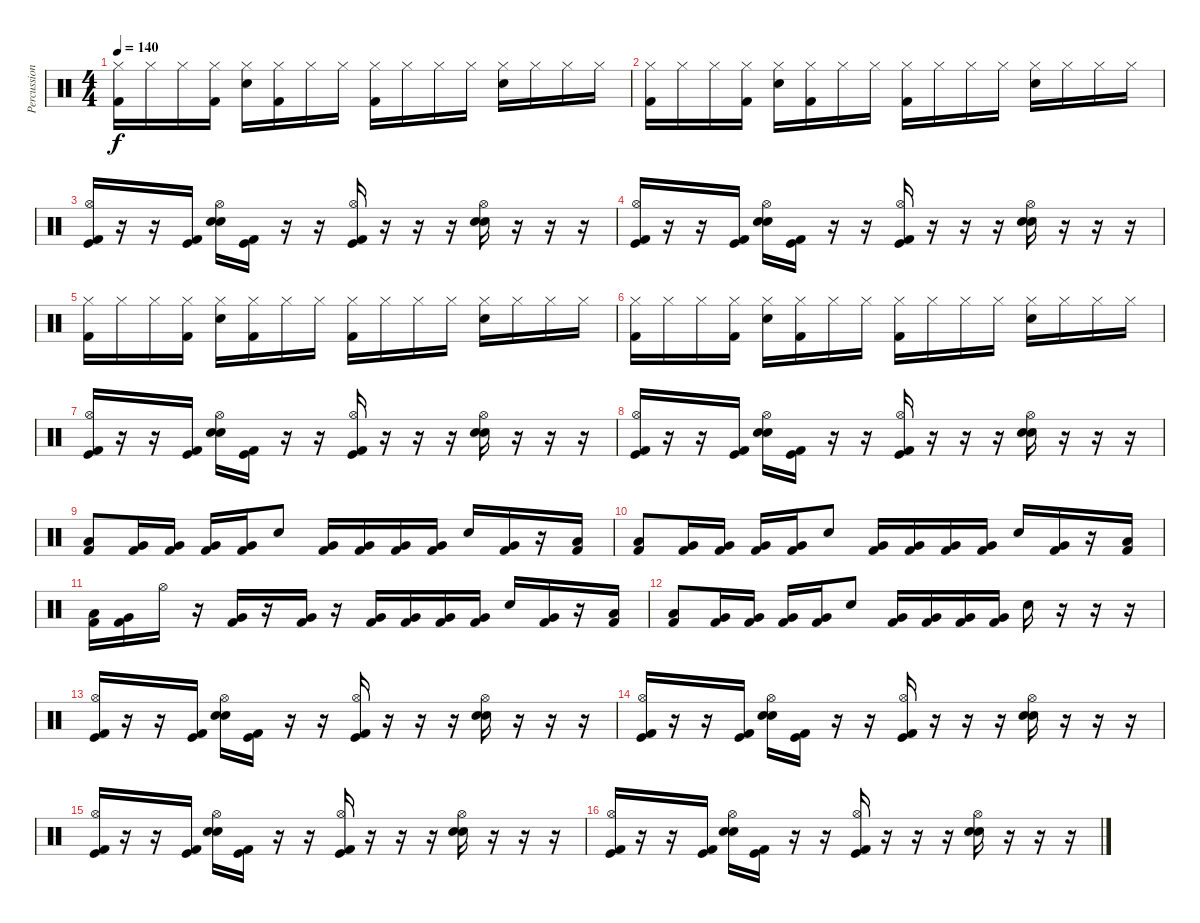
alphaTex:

\track ("Percussion" "Percussion") {instrument percussion}
\staff {score}
\articulation defaults
\ts (4 4)
\tempo 140
\clef neutral
\ks c
("Hi-Hat (closed)" "Kick (hit) 2").16{dy f} "Hi-Hat (closed)".16 "Hi-Hat (closed)".16 ("Hi-Hat (closed)" "Kick (hit) 2").16 ("Hi-Hat (closed)" "Electric Snare (hit)").16 ("Hi-Hat (closed)" "Kick (hit) 2").16 "Hi-Hat (closed)".16 "Hi-Hat (closed)".16 ("Hi-Hat (closed)" "Kick (hit) 2").16 "Hi-Hat (closed)".16 "Hi-Hat (closed)".16 "Hi-Hat (closed)".16 ("Hi-Hat (closed)" "Electric Snare (hit)").16 "Hi-Hat (closed)".16 "Hi-Hat (closed)".16 "Hi-Hat (closed)".16 |
("Hi-Hat (closed)" "Kick (hit) 2").16 "Hi-Hat (closed)".16 "Hi-Hat (closed)".16 ("Hi-Hat (closed)" "Kick (hit) 2").16 ("Hi-Hat (closed)" "Electric Snare (hit)").16 ("Hi-Hat (closed)" "Kick (hit) 2").16 "Hi-Hat (closed)".16 "Hi-Hat (closed)".16 ("Hi-Hat (closed)" "Kick (hit) 2").16 "Hi-Hat (closed)".16 "Hi-Hat (closed)".16 "Hi-Hat (closed)".16 ("Hi-Hat (closed)" "Electric Snare (hit)").16 "Hi-Hat (closed)".16 "Hi-Hat (closed)".16 "Hi-Hat (closed)".16 |
("Hi-Hat (open)" "Kick (hit)" "Kick (hit) 2").16 r.16 r.16 ("Kick (hit)" "Kick (hit) 2").16 ("Hi-Hat (open)" "Electric Snare (hit)" "Electric Snare (hit)").16 ("Kick (hit)" "Kick (hit) 2").16 r.16 r.16 ("Hi-Hat (open)" "Kick (hit)" "Kick (hit) 2").16 r.16 r.16 r.16 ("Hi-Hat (open)" "Electric Snare (hit)" "Electric Snare (hit)").16 r.16 r.16 r.16 |
("Hi-Hat (open)" "Kick (hit)" "Kick (hit) 2").16 r.16 r.16 ("Kick (hit)" "Kick (hit) 2").16 ("Hi-Hat (open)" "Electric Snare (hit)" "Electric Snare (hit)").16 ("Kick (hit)" "Kick (hit) 2").16 r.16 r.16 ("Hi-Hat (open)" "Kick (hit)" "Kick (hit) 2").16 r.16 r.16 r.16 ("Hi-Hat (open)" "Electric Snare (hit)" "Electric Snare (hit)").16 r.16 r.16 r.16 |
("Hi-Hat (closed)" "Kick (hit) 2").16 "Hi-Hat (closed)".16 "Hi-Hat (closed)".16 ("Hi-Hat (closed)" "Kick (hit) 2").16 ("Hi-Hat (closed)" "Electric Snare (hit)").16 ("Hi-Hat (closed)" "Kick (hit) 2").16 "Hi-Hat (closed)".16 "Hi-Hat (closed)".16 ("Hi-Hat (closed)" "Kick (hit) 2").16 "Hi-Hat (closed)".16 "Hi-Hat (closed)".16 "Hi-Hat (closed)".16 ("Hi-Hat (closed)" "Electric Snare (hit)").16 "Hi-Hat (closed)".16 "Hi-Hat (closed)".16 "Hi-Hat (closed)".16 |
("Hi-Hat (closed)" "Kick (hit) 2").16 "Hi-Hat (closed)".16 "Hi-Hat (closed)".16 ("Hi-Hat (closed)" "Kick (hit) 2").16 ("Hi-Hat (closed)" "Electric Snare (hit)").16 ("Hi-Hat (closed)" "Kick (hit) 2").16 "Hi-Hat (closed)".16 "Hi-Hat (closed)".16 ("Hi-Hat (closed)" "Kick (hit) 2").16 "Hi-Hat (closed)".16 "Hi-Hat (closed)".16 "Hi-Hat (closed)".16 ("Hi-Hat (closed)" "Electric Snare (hit)").16 "Hi-Hat (closed)".16 "Hi-Hat (closed)".16 "Hi-Hat (closed)".16 |
("Hi-Hat (open)" "Kick (hit)" "Kick (hit) 2").16 r.16 r.16 ("Kick (hit)" "Kick (hit) 2").16 ("Hi-Hat (open)" "Electric Snare (hit)" "Electric Snare (hit)").16 ("Kick (hit)" "Kick (hit) 2").16 r.16 r.16 ("Hi-Hat (open)" "Kick (hit)" "Kick (hit) 2").16 r.16 r.16 r.16 ("Hi-Hat (open)" "Electric Snare (hit)" "Electric Snare (hit)").16 r.16 r.16 r.16 |
("Hi-Hat (open)" "Kick (hit)" "Kick (hit) 2").16 r.16 r.16 ("Kick (hit)" "Kick (hit) 2").16 ("Hi-Hat (open)" "Electric Snare (hit)" "Electric Snare (hit)").16 ("Kick (hit)" "Kick (hit) 2").16 r.16 r.16 ("Hi-Hat (open)" "Kick (hit)" "Kick (hit) 2").16 r.16 r.16 r.16 ("Hi-Hat (open)" "Electric Snare (hit)" "Electric Snare (hit)").16 r.16 r.16 r.16 |
("Low Tom (hit)" "Kick (hit) 2").8 ("Very Low Tom (hit)" "Kick (hit) 2").16 ("Very Low Tom (hit)" "Kick (hit) 2").16 ("Very Low Tom (hit)" "Kick (hit) 2").16 ("Very Low Tom (hit)" "Kick (hit) 2").16 "Electric Snare (hit)".8 ("Very Low Tom (hit)" "Kick (hit) 2").16 ("Very Low Tom (hit)" "Kick (hit) 2").16 ("Very Low Tom (hit)" "Kick (hit) 2").16 ("Very Low Tom (hit)" "Kick (hit) 2").16 "Electric Snare (hit)".16 ("Very Low Tom (hit)" "Kick (hit) 2").16 r.16 ("Low Tom (hit)" "Kick (hit) 2").16 |
("Low Tom (hit)" "Kick (hit) 2").8 ("Very Low Tom (hit)" "Kick (hit) 2").16 ("Very Low Tom (hit)" "Kick (hit) 2").16 ("Very Low Tom (hit)" "Kick (hit) 2").16 ("Very Low Tom (hit)" "Kick (hit) 2").16 "Electric Snare (hit)".8 ("Very Low Tom (hit)" "Kick (hit) 2").16 ("Very Low Tom (hit)" "Kick (hit) 2").16 ("Very Low Tom (hit)" "Kick (hit) 2").16 ("Very Low Tom (hit)" "Kick (hit) 2").16 "Electric Snare (hit)".16 ("Very Low Tom (hit)" "Kick (hit) 2").16 r.16 ("Low Tom (hit)" "Kick (hit) 2").16 |
("Low Tom (hit)" "Kick (hit) 2").16 ("Very Low Tom (hit)" "Kick (hit) 2").16 "Hi-Hat (open)".16 r.16 ("Very Low Tom (hit)" "Kick (hit) 2").16 r.16 ("Very Low Tom (hit)" "Kick (hit) 2").16 r.16 ("Very Low Tom (hit)" "Kick (hit) 2").16 ("Very Low Tom (hit)" "Kick (hit) 2").16 ("Very Low Tom (hit)" "Kick (hit) 2").16 ("Very Low Tom (hit)" "Kick (hit) 2").16 "Electric Snare (hit)".16 ("Very Low Tom (hit)" "Kick (hit) 2").16 r.16 ("Low Tom (hit)" "Kick (hit) 2").16 |
("Low Tom (hit)" "Kick (hit) 2").8 ("Very Low Tom (hit)" "Kick (hit) 2").16 ("Very Low Tom (hit)" "Kick (hit) 2").16 ("Very Low Tom (hit)" "Kick (hit) 2").16 ("Very Low Tom (hit)" "Kick (hit) 2").16 "Electric Snare (hit)".8 ("Very Low Tom (hit)" "Kick (hit) 2").16 ("Very Low Tom (hit)" "Kick (hit) 2").16 ("Very Low Tom (hit)" "Kick (hit) 2").16 ("Very Low Tom (hit)" "Kick (hit) 2").16 "Electric Snare (hit)".16 r.16 r.16 r.16 |
("Hi-Hat (open)" "Kick (hit)" "Kick (hit) 2").16 r.16 r.16 ("Kick (hit)" "Kick (hit) 2").16 ("Hi-Hat (open)" "Electric Snare (hit)" "Electric Snare (hit)").16 ("Kick (hit)" "Kick (hit) 2").16 r.16 r.16 ("Hi-Hat (open)" "Kick (hit)" "Kick (hit) 2").16 r.16 r.16 r.16 ("Hi-Hat (open)" "Electric Snare (hit)" "Electric Snare (hit)").16 r.16 r.16 r.16 |
("Hi-Hat (open)" "Kick (hit)" "Kick (hit) 2").16 r.16 r.16 ("Kick (hit)" "Kick (hit) 2").16 ("Hi-Hat (open)" "Electric Snare (hit)" "Electric Snare (hit)").16 ("Kick (hit)" "Kick (hit) 2").16 r.16 r.16 ("Hi-Hat (open)" "Kick (hit)" "Kick (hit) 2").16 r.16 r.16 r.16 ("Hi-Hat (open)" "Electric Snare (hit)" "Electric Snare (hit)").16 r.16 r.16 r.16 |
("Hi-Hat (open)" "Kick (hit)" "Kick (hit) 2").16 r.16 r.16 ("Kick (hit)" "Kick (hit) 2").16 ("Hi-Hat (open)" "Electric Snare (hit)" "Electric Snare (hit)").16 ("Kick (hit)" "Kick (hit) 2").16 r.16 r.16 ("Hi-Hat (open)" "Kick (hit)" "Kick (hit) 2").16 r.16 r.16 r.16 ("Hi-Hat (open)" "Electric Snare (hit)" "Electric Snare (hit)").16 r.16 r.16 r.16 |
("Hi-Hat (open)" "Kick (hit)" "Kick (hit) 2").16 r.16 r.16 ("Kick (hit)" "Kick (hit) 2").16 ("Hi-Hat (open)" "Electric Snare (hit)" "Electric Snare (hit)").16 ("Kick (hit)" "Kick (hit) 2").16 r.16 r.16 ("Hi-Hat (open)" "Kick (hit)" "Kick (hit) 2").16 r.16 r.16 r.16 ("Hi-Hat (open)" "Electric Snare (hit)" "Electric Snare (hit)").16 r.16 r.16 r.16
